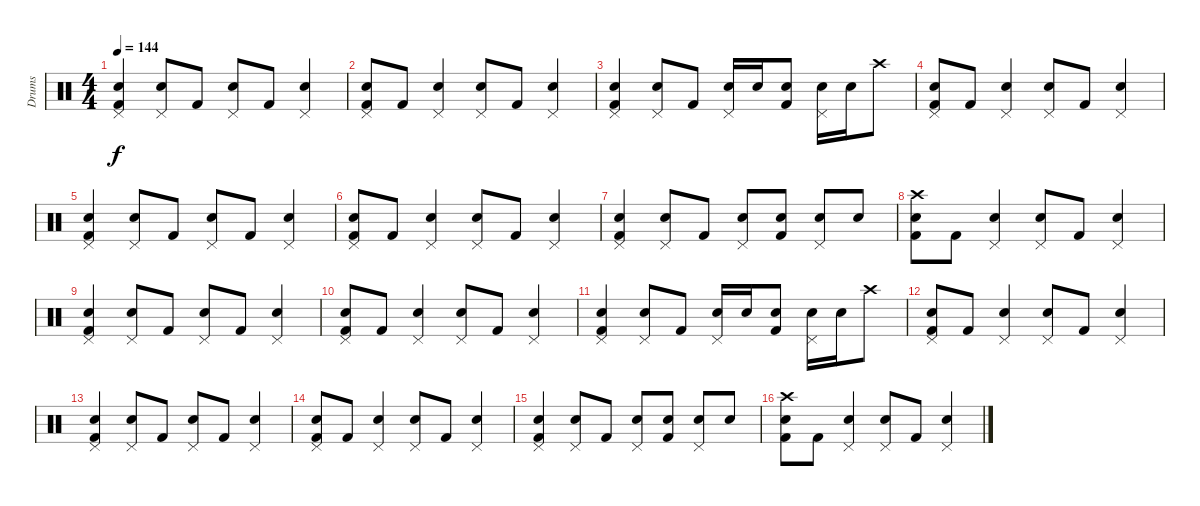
\track ("Drums" "Drums") {instrument percussion}
\staff {score}
\articulation defaults
\ts (4 4)
\tempo 144
\clef neutral
\ks c
("Electric Snare (hit)" "Kick (hit) 2" "Pedal Hi-Hat (hit)").4{dy f} ("Electric Snare (hit)" "Pedal Hi-Hat (hit)").8 "Kick (hit) 2".8 ("Electric Snare (hit)" "Pedal Hi-Hat (hit)").8 "Kick (hit) 2".8 ("Electric Snare (hit)" "Pedal Hi-Hat (hit)").4 |
("Electric Snare (hit)" "Pedal Hi-Hat (hit)" "Kick (hit) 2").8 "Kick (hit) 2".8 ("Pedal Hi-Hat (hit)" "Electric Snare (hit)").4 ("Electric Snare (hit)" "Pedal Hi-Hat (hit)").8 "Kick (hit) 2".8 ("Pedal Hi-Hat (hit)" "Electric Snare (hit)").4 |
("Electric Snare (hit)" "Kick (hit) 2" "Pedal Hi-Hat (hit)").4 ("Electric Snare (hit)" "Pedal Hi-Hat (hit)").8 "Kick (hit) 2".8 ("Electric Snare (hit)" "Pedal Hi-Hat (hit)").16 "Electric Snare (hit)".16 ("Electric Snare (hit)" "Kick (hit) 2").8 ("Electric Snare (hit)" "Pedal Hi-Hat (hit)").16 "Electric Snare (hit)".16 "Crash high (hit)".8 |
("Electric Snare (hit)" "Pedal Hi-Hat (hit)" "Kick (hit) 2").8 "Kick (hit) 2".8 ("Pedal Hi-Hat (hit)" "Electric Snare (hit)").4 ("Electric Snare (hit)" "Pedal Hi-Hat (hit)").8 "Kick (hit) 2".8 ("Pedal Hi-Hat (hit)" "Electric Snare (hit)").4 |
("Electric Snare (hit)" "Kick (hit) 2" "Pedal Hi-Hat (hit)").4 ("Electric Snare (hit)" "Pedal Hi-Hat (hit)").8 "Kick (hit) 2".8 ("Electric Snare (hit)" "Pedal Hi-Hat (hit)").8 "Kick (hit) 2".8 ("Electric Snare (hit)" "Pedal Hi-Hat (hit)").4 |
("Electric Snare (hit)" "Pedal Hi-Hat (hit)" "Kick (hit) 2").8 "Kick (hit) 2".8 ("Pedal Hi-Hat (hit)" "Electric Snare (hit)").4 ("Electric Snare (hit)" "Pedal Hi-Hat (hit)").8 "Kick (hit) 2".8 ("Pedal Hi-Hat (hit)" "Electric Snare (hit)").4 |
("Electric Snare (hit)" "Kick (hit) 2" "Pedal Hi-Hat (hit)").4 ("Electric Snare (hit)" "Pedal Hi-Hat (hit)").8 "Kick (hit) 2".8 ("Electric Snare (hit)" "Pedal Hi-Hat (hit)").8 ("Electric Snare (hit)" "Kick (hit) 2").8 ("Electric Snare (hit)" "Pedal Hi-Hat (hit)").8 "Electric Snare (hit)".8 |
("Electric Snare (hit)" "Crash high (hit)" "Kick (hit) 2").8 "Kick (hit) 2".8 ("Pedal Hi-Hat (hit)" "Electric Snare (hit)").4 ("Electric Snare (hit)" "Pedal Hi-Hat (hit)").8 "Kick (hit) 2".8 ("Pedal Hi-Hat (hit)" "Electric Snare (hit)").4 |
("Electric Snare (hit)" "Kick (hit) 2" "Pedal Hi-Hat (hit)").4 ("Electric Snare (hit)" "Pedal Hi-Hat (hit)").8 "Kick (hit) 2".8 ("Electric Snare (hit)" "Pedal Hi-Hat (hit)").8 "Kick (hit) 2".8 ("Electric Snare (hit)" "Pedal Hi-Hat (hit)").4 |
("Electric Snare (hit)" "Pedal Hi-Hat (hit)" "Kick (hit) 2").8 "Kick (hit) 2".8 ("Pedal Hi-Hat (hit)" "Electric Snare (hit)").4 ("Electric Snare (hit)" "Pedal Hi-Hat (hit)").8 "Kick (hit) 2".8 ("Pedal Hi-Hat (hit)" "Electric Snare (hit)").4 |
("Electric Snare (hit)" "Kick (hit) 2" "Pedal Hi-Hat (hit)").4 ("Electric Snare (hit)" "Pedal Hi-Hat (hit)").8 "Kick (hit) 2".8 ("Electric Snare (hit)" "Pedal Hi-Hat (hit)").16 "Electric Snare (hit)".16 ("Electric Snare (hit)" "Kick (hit) 2").8 ("Electric Snare (hit)" "Pedal Hi-Hat (hit)").16 "Electric Snare (hit)".16 "Crash high (hit)".8 |
("Electric Snare (hit)" "Pedal Hi-Hat (hit)" "Kick (hit) 2").8 "Kick (hit) 2".8 ("Pedal Hi-Hat (hit)" "Electric Snare (hit)").4 ("Electric Snare (hit)" "Pedal Hi-Hat (hit)").8 "Kick (hit) 2".8 ("Pedal Hi-Hat (hit)" "Electric Snare (hit)").4 |
("Electric Snare (hit)" "Kick (hit) 2" "Pedal Hi-Hat (hit)").4 ("Electric Snare (hit)" "Pedal Hi-Hat (hit)").8 "Kick (hit) 2".8 ("Electric Snare (hit)" "Pedal Hi-Hat (hit)").8 "Kick (hit) 2".8 ("Electric Snare (hit)" "Pedal Hi-Hat (hit)").4 |
("Electric Snare (hit)" "Pedal Hi-Hat (hit)" "Kick (hit) 2").8 "Kick (hit) 2".8 ("Pedal Hi-Hat (hit)" "Electric Snare (hit)").4 ("Electric Snare (hit)" "Pedal Hi-Hat (hit)").8 "Kick (hit) 2".8 ("Pedal Hi-Hat (hit)" "Electric Snare (hit)").4 |
("Electric Snare (hit)" "Kick (hit) 2" "Pedal Hi-Hat (hit)").4 ("Electric Snare (hit)" "Pedal Hi-Hat (hit)").8 "Kick (hit) 2".8 ("Electric Snare (hit)" "Pedal Hi-Hat (hit)").8 ("Electric Snare (hit)" "Kick (hit) 2").8 ("Electric Snare (hit)" "Pedal Hi-Hat (hit)").8 "Electric Snare (hit)".8 |
("Electric Snare (hit)" "Crash high (hit)" "Kick (hit) 2").8 "Kick (hit) 2".8 ("Electric Snare (hit)" "Pedal Hi-Hat (hit)").4 ("Electric Snare (hit)" "Pedal Hi-Hat (hit)").8{volume 16} "Kick (hit) 2".8{volume 16} ("Pedal Hi-Hat (hit)" "Electric Snare (hit)").4
